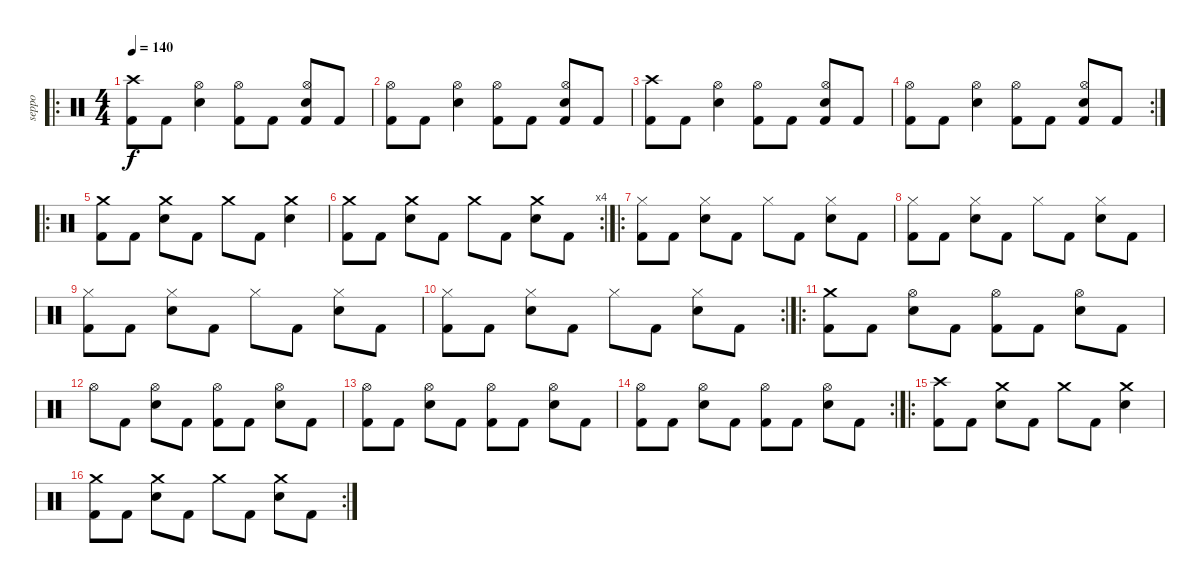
\track ("seppo" "seppo") {instrument percussion}
\staff {score}
\articulation defaults
\ro
\ts (4 4)
\tempo 140
\clef neutral
\ks c
("Kick (hit) 2" "Crash high (hit)").8{dy f} "Kick (hit) 2".8 ("Hi-Hat (open)" "Snare (hit) 2").4 ("Kick (hit) 2" "Hi-Hat (open)").8 "Kick (hit) 2".8 ("Kick (hit) 2" "Hi-Hat (open)" "Snare (hit) 2").8 "Kick (hit) 2".8 |
("Kick (hit) 2" "Hi-Hat (open)").8 "Kick (hit) 2".8 ("Hi-Hat (open)" "Snare (hit) 2").4 ("Kick (hit) 2" "Hi-Hat (open)").8 "Kick (hit) 2".8 ("Kick (hit) 2" "Hi-Hat (open)" "Snare (hit) 2").8 "Kick (hit) 2".8 |
("Kick (hit) 2" "Crash high (hit)").8 "Kick (hit) 2".8 ("Hi-Hat (open)" "Snare (hit) 2").4 ("Kick (hit) 2" "Hi-Hat (open)").8 "Kick (hit) 2".8 ("Kick (hit) 2" "Hi-Hat (open)" "Snare (hit) 2").8 "Kick (hit) 2".8 |
\rc 2
("Kick (hit) 2" "Hi-Hat (open)").8 "Kick (hit) 2".8 ("Hi-Hat (open)" "Snare (hit) 2").4 ("Kick (hit) 2" "Hi-Hat (open)").8 "Kick (hit) 2".8 ("Kick (hit) 2" "Hi-Hat (open)" "Snare (hit) 2").8 "Kick (hit) 2".8 |
\ro
("Kick (hit) 2" "Crash medium (hit)").8 "Kick (hit) 2".8 ("Crash medium (hit)" "Snare (hit) 2").8 "Kick (hit) 2".8 "Crash medium (hit)".8 "Kick (hit) 2".8 ("Crash medium (hit)" "Snare (hit) 2").4 |
\rc 4
("Kick (hit) 2" "Crash medium (hit)").8 "Kick (hit) 2".8 ("Crash medium (hit)" "Snare (hit) 2").8 "Kick (hit) 2".8 "Crash medium (hit)".8 "Kick (hit) 2".8 ("Crash medium (hit)" "Snare (hit) 2").8 "Kick (hit) 2".8 |
\ro
("Kick (hit) 2" "Hi-Hat (closed)").8 "Kick (hit) 2".8 ("Hi-Hat (closed)" "Snare (hit) 2").8 "Kick (hit) 2".8 "Hi-Hat (closed)".8 "Kick (hit) 2".8 ("Hi-Hat (closed)" "Snare (hit) 2").8 "Kick (hit) 2".8 |
("Kick (hit) 2" "Hi-Hat (closed)").8 "Kick (hit) 2".8 ("Hi-Hat (closed)" "Snare (hit) 2").8 "Kick (hit) 2".8 "Hi-Hat (closed)".8 "Kick (hit) 2".8 ("Hi-Hat (closed)" "Snare (hit) 2").8 "Kick (hit) 2".8 |
("Kick (hit) 2" "Hi-Hat (closed)").8 "Kick (hit) 2".8 ("Hi-Hat (closed)" "Snare (hit) 2").8 "Kick (hit) 2".8 "Hi-Hat (closed)".8 "Kick (hit) 2".8 ("Hi-Hat (closed)" "Snare (hit) 2").8 "Kick (hit) 2".8 |
\rc 2
("Kick (hit) 2" "Hi-Hat (closed)").8 "Kick (hit) 2".8 ("Hi-Hat (closed)" "Snare (hit) 2").8 "Kick (hit) 2".8 "Hi-Hat (closed)".8 "Kick (hit) 2".8 ("Hi-Hat (closed)" "Snare (hit) 2").8 "Kick (hit) 2".8 |
\ro
("Kick (hit) 2" "Crash medium (hit)").8 "Kick (hit) 2".8 ("Hi-Hat (open)" "Snare (hit) 2").8 "Kick (hit) 2".8 ("Kick (hit) 2" "Hi-Hat (open)").8 "Kick (hit) 2".8 ("Hi-Hat (open)" "Snare (hit) 2").8 "Kick (hit) 2".8 |
"Hi-Hat (open)".8 "Kick (hit) 2".8 ("Hi-Hat (open)" "Snare (hit) 2").8 "Kick (hit) 2".8 ("Kick (hit) 2" "Hi-Hat (open)").8 "Kick (hit) 2".8 ("Hi-Hat (open)" "Snare (hit) 2").8 "Kick (hit) 2".8 |
("Kick (hit) 2" "Hi-Hat (open)").8 "Kick (hit) 2".8 ("Hi-Hat (open)" "Snare (hit) 2").8 "Kick (hit) 2".8 ("Kick (hit) 2" "Hi-Hat (open)").8 "Kick (hit) 2".8 ("Hi-Hat (open)" "Snare (hit) 2").8 "Kick (hit) 2".8 |
\rc 2
("Kick (hit) 2" "Hi-Hat (open)").8 "Kick (hit) 2".8 ("Hi-Hat (open)" "Snare (hit) 2").8 "Kick (hit) 2".8 ("Kick (hit) 2" "Hi-Hat (open)").8 "Kick (hit) 2".8 ("Hi-Hat (open)" "Snare (hit) 2").8 "Kick (hit) 2".8 |
\ro
("Kick (hit) 2" "Crash high (hit)").8 "Kick (hit) 2".8 ("Crash medium (hit)" "Snare (hit) 2").8 "Kick (hit) 2".8 "Crash medium (hit)".8 "Kick (hit) 2".8 ("Crash medium (hit)" "Snare (hit) 2").4 |
\rc 2
("Kick (hit) 2" "Crash medium (hit)").8 "Kick (hit) 2".8 ("Crash medium (hit)" "Snare (hit) 2").8 "Kick (hit) 2".8 "Crash medium (hit)".8 "Kick (hit) 2".8 ("Crash medium (hit)" "Snare (hit) 2").8 "Kick (hit) 2".8
